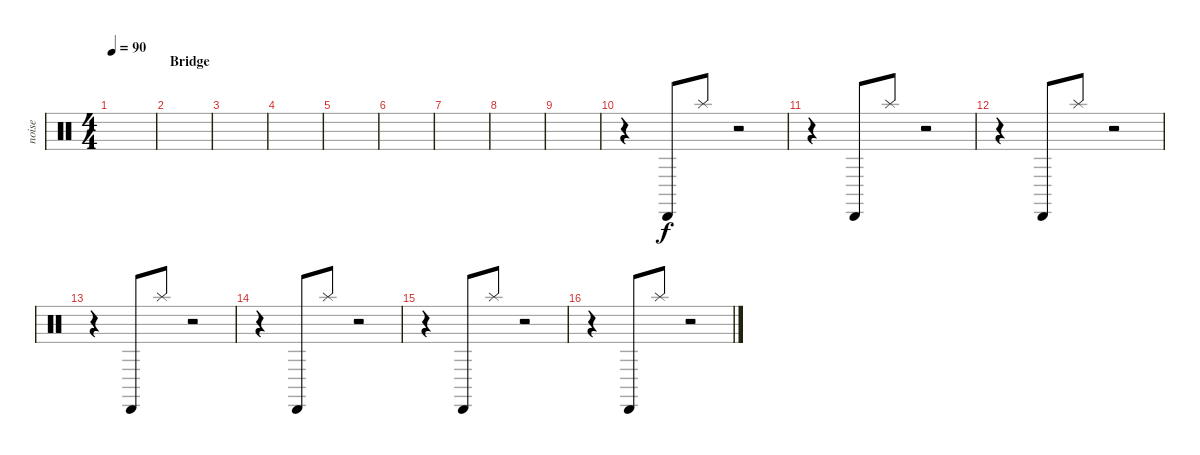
\track ("noise" "noise") {instrument percussion}
\staff {score}
\articulation defaults
\ts (4 4)
\tempo 90
\clef neutral
\ks c
|
\section ("" "Bridge")
|
|
|
|
|
|
|
|
r.4 "Cabasa (hit)".8{volume 9} "Splash (hit)".8 r.2 |
r.4 "Cabasa (hit)".8{volume 9} "Splash (hit)".8 r.2 |
r.4 "Cabasa (hit)".8{volume 9} "Splash (hit)".8 r.2 |
r.4 "Cabasa (hit)".8{volume 9} "Splash (hit)".8 r.2 |
r.4 "Cabasa (hit)".8{volume 9} "Splash (hit)".8 r.2 |
r.4 "Cabasa (hit)".8{volume 9} "Splash (hit)".8 r.2 |
r.4 "Cabasa (hit)".8{volume 9} "Splash (hit)".8 r.2
